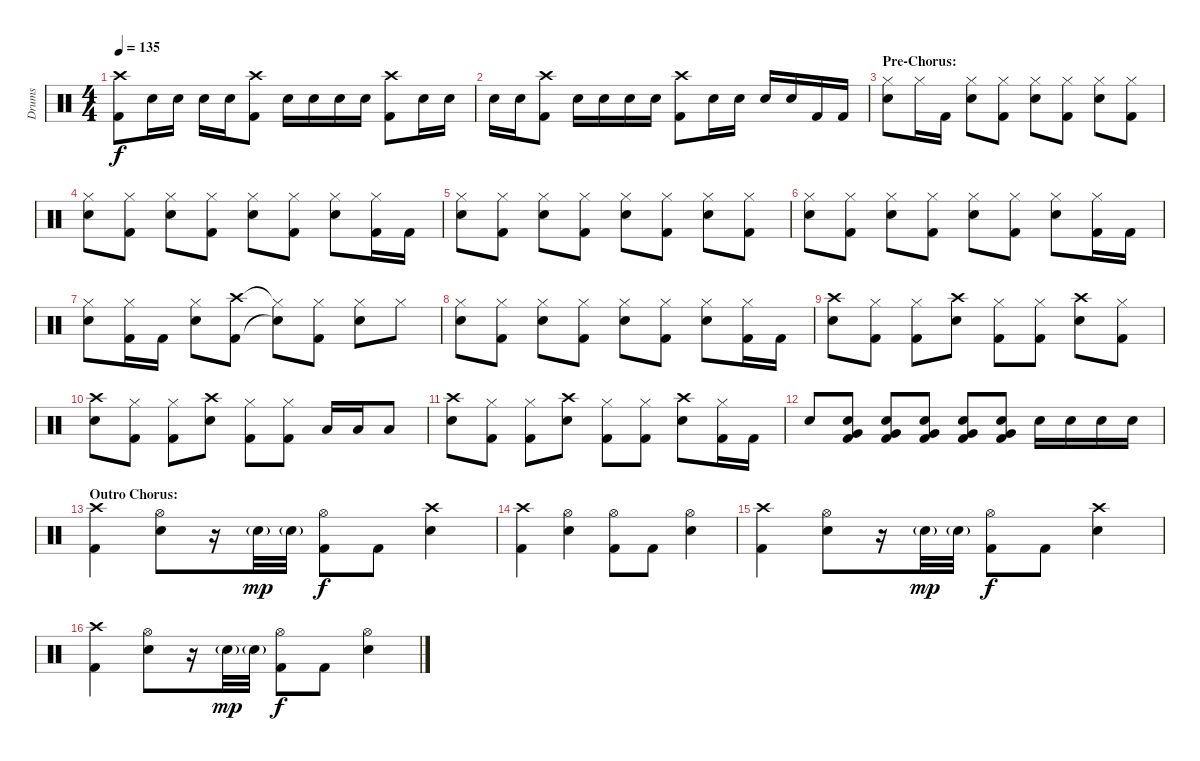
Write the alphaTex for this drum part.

\track ("Drums" "Drums") {instrument percussion}
\staff {score}
\articulation defaults
\ts (4 4)
\tempo 135
\clef neutral
\ks c
("Crash high (hit)" "Kick (hit) 2").8{dy f} "Snare (hit) 2".16 "Snare (hit) 2".16 "Snare (hit) 2".16 "Snare (hit) 2".16 ("Crash high (hit)" "Kick (hit) 2").8 "Snare (hit) 2".16 "Snare (hit) 2".16 "Snare (hit) 2".16 "Snare (hit) 2".16 ("Crash high (hit)" "Kick (hit) 2").8 "Snare (hit) 2".16 "Snare (hit) 2".16 |
"Snare (hit) 2".16 "Snare (hit) 2".16 ("Crash high (hit)" "Kick (hit) 2").8 "Snare (hit) 2".16 "Snare (hit) 2".16 "Snare (hit) 2".16 "Snare (hit) 2".16 ("Crash high (hit)" "Kick (hit) 2").8 "Snare (hit) 2".16 "Snare (hit) 2".16 "Snare (hit) 2".16 "Snare (hit) 2".16 "Kick (hit) 2".16 "Kick (hit) 2".16 |
\section ("" "Pre-Chorus:")
("Hi-Hat (closed)" "Snare (hit) 2").8 "Hi-Hat (closed)".16 "Kick (hit) 2".16 ("Hi-Hat (closed)" "Snare (hit) 2").8 ("Hi-Hat (closed)" "Kick (hit) 2").8 ("Hi-Hat (closed)" "Snare (hit) 2").8 ("Hi-Hat (closed)" "Kick (hit) 2").8 ("Hi-Hat (closed)" "Snare (hit) 2").8 ("Hi-Hat (closed)" "Kick (hit) 2").8 |
("Hi-Hat (closed)" "Snare (hit) 2").8 ("Hi-Hat (closed)" "Kick (hit) 2").8 ("Hi-Hat (closed)" "Snare (hit) 2").8 ("Hi-Hat (closed)" "Kick (hit) 2").8 ("Hi-Hat (closed)" "Snare (hit) 2").8 ("Hi-Hat (closed)" "Kick (hit) 2").8 ("Hi-Hat (closed)" "Snare (hit) 2").8 ("Hi-Hat (closed)" "Kick (hit) 2").16 "Kick (hit) 2".16 |
("Hi-Hat (closed)" "Snare (hit) 2").8 ("Hi-Hat (closed)" "Kick (hit) 2").8 ("Hi-Hat (closed)" "Snare (hit) 2").8 ("Hi-Hat (closed)" "Kick (hit) 2").8 ("Hi-Hat (closed)" "Snare (hit) 2").8 ("Hi-Hat (closed)" "Kick (hit) 2").8 ("Hi-Hat (closed)" "Snare (hit) 2").8 ("Hi-Hat (closed)" "Kick (hit) 2").8 |
("Hi-Hat (closed)" "Snare (hit) 2").8 ("Hi-Hat (closed)" "Kick (hit) 2").8 ("Hi-Hat (closed)" "Snare (hit) 2").8 ("Hi-Hat (closed)" "Kick (hit) 2").8 ("Hi-Hat (closed)" "Snare (hit) 2").8 ("Hi-Hat (closed)" "Kick (hit) 2").8 ("Hi-Hat (closed)" "Snare (hit) 2").8 ("Hi-Hat (closed)" "Kick (hit) 2").16 "Kick (hit) 2".16 |
("Hi-Hat (closed)" "Snare (hit) 2").8 ("Hi-Hat (closed)" "Kick (hit) 2").16 "Kick (hit) 2".16 ("Hi-Hat (closed)" "Snare (hit) 2").8 ("Crash high (hit)" "Kick (hit) 2").8 ("Hi-Hat (closed)"{t} "Snare (hit)"{t}).8 ("Hi-Hat (closed)" "Kick (hit) 2").8 ("Hi-Hat (closed)" "Snare (hit) 2").8 "Hi-Hat (closed)".8 |
("Hi-Hat (closed)" "Snare (hit) 2").8 ("Hi-Hat (closed)" "Kick (hit) 2").8 ("Hi-Hat (closed)" "Snare (hit) 2").8 ("Hi-Hat (closed)" "Kick (hit) 2").8 ("Hi-Hat (closed)" "Snare (hit) 2").8 ("Hi-Hat (closed)" "Kick (hit) 2").8 ("Hi-Hat (closed)" "Snare (hit) 2").8 ("Hi-Hat (closed)" "Kick (hit) 2").16 "Kick (hit) 2".16 |
("Crash high (hit)" "Snare (hit) 2").8 ("Hi-Hat (closed)" "Kick (hit) 2").8 ("Hi-Hat (closed)" "Kick (hit) 2").8 ("Crash high (hit)" "Snare (hit) 2").8 ("Hi-Hat (closed)" "Kick (hit) 2").8 ("Hi-Hat (closed)" "Kick (hit) 2").8 ("Crash high (hit)" "Snare (hit) 2").8 ("Hi-Hat (closed)" "Kick (hit) 2").8 |
("Crash high (hit)" "Snare (hit) 2").8 ("Hi-Hat (closed)" "Kick (hit) 2").8 ("Hi-Hat (closed)" "Kick (hit) 2").8 ("Crash high (hit)" "Snare (hit) 2").8 ("Hi-Hat (closed)" "Kick (hit) 2").8 ("Hi-Hat (closed)" "Kick (hit) 2").8 "Low Tom (hit)".16 "Low Tom (hit)".16 "Low Tom (hit)".8 |
("Crash high (hit)" "Snare (hit) 2").8 ("Hi-Hat (closed)" "Kick (hit) 2").8 ("Hi-Hat (closed)" "Kick (hit) 2").8 ("Crash high (hit)" "Snare (hit) 2").8 ("Hi-Hat (closed)" "Kick (hit) 2").8 ("Hi-Hat (closed)" "Kick (hit) 2").8 ("Crash high (hit)" "Snare (hit) 2").8 ("Hi-Hat (closed)" "Kick (hit) 2").16 "Kick (hit) 2".16 |
"Snare (hit) 2".8 ("Very Low Tom (hit)" "Snare (hit) 2" "Kick (hit) 2").8 ("Very Low Tom (hit)" "Snare (hit) 2" "Kick (hit) 2").8 ("Very Low Tom (hit)" "Snare (hit) 2" "Kick (hit) 2").8 ("Very Low Tom (hit)" "Snare (hit) 2" "Kick (hit) 2").8 ("Very Low Tom (hit)" "Snare (hit) 2" "Kick (hit) 2").8 "Snare (hit) 2".16 "Snare (hit) 2".16 "Snare (hit) 2".16 "Snare (hit) 2".16 |
\section ("" "Outro Chorus:")
("Crash high (hit)" "Kick (hit) 2").4 ("Hi-Hat (open)" "Snare (hit) 2").8 r.16 "Snare (hit) 2"{g}.32{dy mp} "Snare (hit) 2"{g}.32 ("Hi-Hat (open)" "Kick (hit) 2").8{dy f} "Kick (hit) 2".8 ("Crash high (hit)" "Snare (hit) 2").4 |
("Crash high (hit)" "Kick (hit) 2").4 ("Hi-Hat (open)" "Snare (hit) 2").4 ("Hi-Hat (open)" "Kick (hit) 2").8 "Kick (hit) 2".8 ("Hi-Hat (open)" "Snare (hit) 2").4 |
("Crash high (hit)" "Kick (hit) 2").4 ("Hi-Hat (open)" "Snare (hit) 2").8 r.16 "Snare (hit) 2"{g}.32{dy mp} "Snare (hit) 2"{g}.32 ("Hi-Hat (open)" "Kick (hit) 2").8{dy f} "Kick (hit) 2".8 ("Crash high (hit)" "Snare (hit) 2").4 |
("Crash high (hit)" "Kick (hit) 2").4 ("Hi-Hat (open)" "Snare (hit) 2").8 r.16 "Snare (hit) 2"{g}.32{dy mp} "Snare (hit) 2"{g}.32 ("Hi-Hat (open)" "Kick (hit) 2").8{dy f} "Kick (hit) 2".8 ("Hi-Hat (open)" "Snare (hit) 2").4
